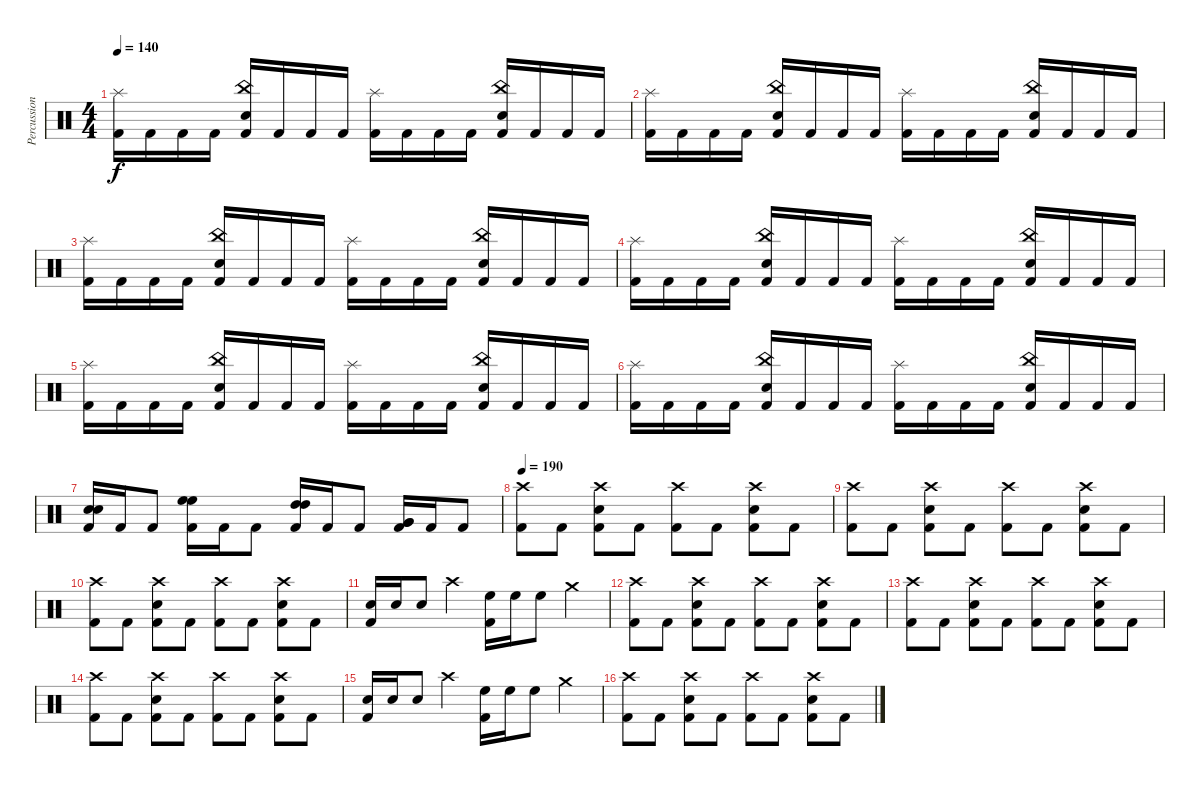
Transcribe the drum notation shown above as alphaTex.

\track ("Percussion" "Percussion") {instrument percussion}
\staff {score}
\articulation defaults
\ts (4 4)
\tempo 140
\clef neutral
\ks c
("Kick (hit) 2" "Splash (hit)").16{dy f} "Kick (hit) 2".16 "Kick (hit) 2".16 "Kick (hit) 2".16 ("Kick (hit) 2" "China (hit)" "Electric Snare (hit)").16 "Kick (hit) 2".16 "Kick (hit) 2".16 "Kick (hit) 2".16 ("Kick (hit) 2" "Splash (hit)").16 "Kick (hit) 2".16 "Kick (hit) 2".16 "Kick (hit) 2".16 ("Kick (hit) 2" "China (hit)" "Electric Snare (hit)").16 "Kick (hit) 2".16 "Kick (hit) 2".16 "Kick (hit) 2".16 |
("Kick (hit) 2" "Splash (hit)").16 "Kick (hit) 2".16 "Kick (hit) 2".16 "Kick (hit) 2".16 ("Kick (hit) 2" "China (hit)" "Electric Snare (hit)").16 "Kick (hit) 2".16 "Kick (hit) 2".16 "Kick (hit) 2".16 ("Kick (hit) 2" "Splash (hit)").16 "Kick (hit) 2".16 "Kick (hit) 2".16 "Kick (hit) 2".16 ("Kick (hit) 2" "China (hit)" "Electric Snare (hit)").16 "Kick (hit) 2".16 "Kick (hit) 2".16 "Kick (hit) 2".16 |
("Kick (hit) 2" "Splash (hit)").16 "Kick (hit) 2".16 "Kick (hit) 2".16 "Kick (hit) 2".16 ("Kick (hit) 2" "China (hit)" "Electric Snare (hit)").16 "Kick (hit) 2".16 "Kick (hit) 2".16 "Kick (hit) 2".16 ("Kick (hit) 2" "Splash (hit)").16 "Kick (hit) 2".16 "Kick (hit) 2".16 "Kick (hit) 2".16 ("Kick (hit) 2" "China (hit)" "Electric Snare (hit)").16 "Kick (hit) 2".16 "Kick (hit) 2".16 "Kick (hit) 2".16 |
("Kick (hit) 2" "Splash (hit)").16 "Kick (hit) 2".16 "Kick (hit) 2".16 "Kick (hit) 2".16 ("Kick (hit) 2" "China (hit)" "Electric Snare (hit)").16 "Kick (hit) 2".16 "Kick (hit) 2".16 "Kick (hit) 2".16 ("Kick (hit) 2" "Splash (hit)").16 "Kick (hit) 2".16 "Kick (hit) 2".16 "Kick (hit) 2".16 ("Kick (hit) 2" "China (hit)" "Electric Snare (hit)").16 "Kick (hit) 2".16 "Kick (hit) 2".16 "Kick (hit) 2".16 |
("Kick (hit) 2" "Splash (hit)").16 "Kick (hit) 2".16 "Kick (hit) 2".16 "Kick (hit) 2".16 ("Kick (hit) 2" "China (hit)" "Electric Snare (hit)").16 "Kick (hit) 2".16 "Kick (hit) 2".16 "Kick (hit) 2".16 ("Kick (hit) 2" "Splash (hit)").16 "Kick (hit) 2".16 "Kick (hit) 2".16 "Kick (hit) 2".16 ("Kick (hit) 2" "China (hit)" "Electric Snare (hit)").16 "Kick (hit) 2".16 "Kick (hit) 2".16 "Kick (hit) 2".16 |
("Kick (hit) 2" "Splash (hit)").16 "Kick (hit) 2".16 "Kick (hit) 2".16 "Kick (hit) 2".16 ("Kick (hit) 2" "China (hit)" "Electric Snare (hit)").16 "Kick (hit) 2".16 "Kick (hit) 2".16 "Kick (hit) 2".16 ("Kick (hit) 2" "Splash (hit)").16 "Kick (hit) 2".16 "Kick (hit) 2".16 "Kick (hit) 2".16 ("Kick (hit) 2" "China (hit)" "Electric Snare (hit)").16 "Kick (hit) 2".16 "Kick (hit) 2".16 "Kick (hit) 2".16 |
("Electric Snare (hit)" "Electric Snare (hit)" "Kick (hit) 2").16 "Kick (hit) 2".16 "Kick (hit) 2".8 ("High Floor Tom (hit)" "High Floor Tom (hit)" "Kick (hit) 2").16 "Kick (hit) 2".16 "Kick (hit) 2".8 ("High Tom (hit)" "High Tom (hit)" "Kick (hit) 2").16 "Kick (hit) 2".16 "Kick (hit) 2".8 ("Very Low Tom (hit)" "Very Low Tom (hit)" "Kick (hit) 2").16 "Kick (hit) 2".16 "Kick (hit) 2".8 |
\tempo 190
("Kick (hit) 2" "Crash high (hit)").8 "Kick (hit) 2".8 ("Kick (hit) 2" "Electric Snare (hit)" "Crash high (hit)").8 "Kick (hit) 2".8 ("Kick (hit) 2" "Crash high (hit)").8 "Kick (hit) 2".8 ("Kick (hit) 2" "Electric Snare (hit)" "Crash high (hit)").8 "Kick (hit) 2".8 |
("Kick (hit) 2" "Crash high (hit)").8 "Kick (hit) 2".8 ("Kick (hit) 2" "Electric Snare (hit)" "Crash high (hit)").8 "Kick (hit) 2".8 ("Kick (hit) 2" "Crash high (hit)").8 "Kick (hit) 2".8 ("Kick (hit) 2" "Electric Snare (hit)" "Crash high (hit)").8 "Kick (hit) 2".8 |
("Kick (hit) 2" "Crash high (hit)").8 "Kick (hit) 2".8 ("Kick (hit) 2" "Electric Snare (hit)" "Crash high (hit)").8 "Kick (hit) 2".8 ("Kick (hit) 2" "Crash high (hit)").8 "Kick (hit) 2".8 ("Kick (hit) 2" "Electric Snare (hit)" "Crash high (hit)").8 "Kick (hit) 2".8 |
("Kick (hit) 2" "Electric Snare (hit)").16 "Electric Snare (hit)".16 "Electric Snare (hit)".8 "Crash high (hit)".4 ("Kick (hit) 2" "High Floor Tom (hit)").16 "High Floor Tom (hit)".16 "High Floor Tom (hit)".8 "Crash medium (hit)".4 |
("Kick (hit) 2" "Crash high (hit)").8 "Kick (hit) 2".8 ("Kick (hit) 2" "Electric Snare (hit)" "Crash high (hit)").8 "Kick (hit) 2".8 ("Kick (hit) 2" "Crash high (hit)").8 "Kick (hit) 2".8 ("Kick (hit) 2" "Electric Snare (hit)" "Crash high (hit)").8 "Kick (hit) 2".8 |
("Kick (hit) 2" "Crash high (hit)").8 "Kick (hit) 2".8 ("Kick (hit) 2" "Electric Snare (hit)" "Crash high (hit)").8 "Kick (hit) 2".8 ("Kick (hit) 2" "Crash high (hit)").8 "Kick (hit) 2".8 ("Kick (hit) 2" "Electric Snare (hit)" "Crash high (hit)").8 "Kick (hit) 2".8 |
("Kick (hit) 2" "Crash high (hit)").8 "Kick (hit) 2".8 ("Kick (hit) 2" "Electric Snare (hit)" "Crash high (hit)").8 "Kick (hit) 2".8 ("Kick (hit) 2" "Crash high (hit)").8 "Kick (hit) 2".8 ("Kick (hit) 2" "Electric Snare (hit)" "Crash high (hit)").8 "Kick (hit) 2".8 |
("Kick (hit) 2" "Electric Snare (hit)").16 "Electric Snare (hit)".16 "Electric Snare (hit)".8 "Crash high (hit)".4 ("Kick (hit) 2" "High Floor Tom (hit)").16 "High Floor Tom (hit)".16 "High Floor Tom (hit)".8 "Crash medium (hit)".4 |
("Kick (hit) 2" "Crash high (hit)").8 "Kick (hit) 2".8 ("Kick (hit) 2" "Electric Snare (hit)" "Crash high (hit)").8 "Kick (hit) 2".8 ("Kick (hit) 2" "Crash high (hit)").8 "Kick (hit) 2".8 ("Kick (hit) 2" "Electric Snare (hit)" "Crash high (hit)").8 "Kick (hit) 2".8
